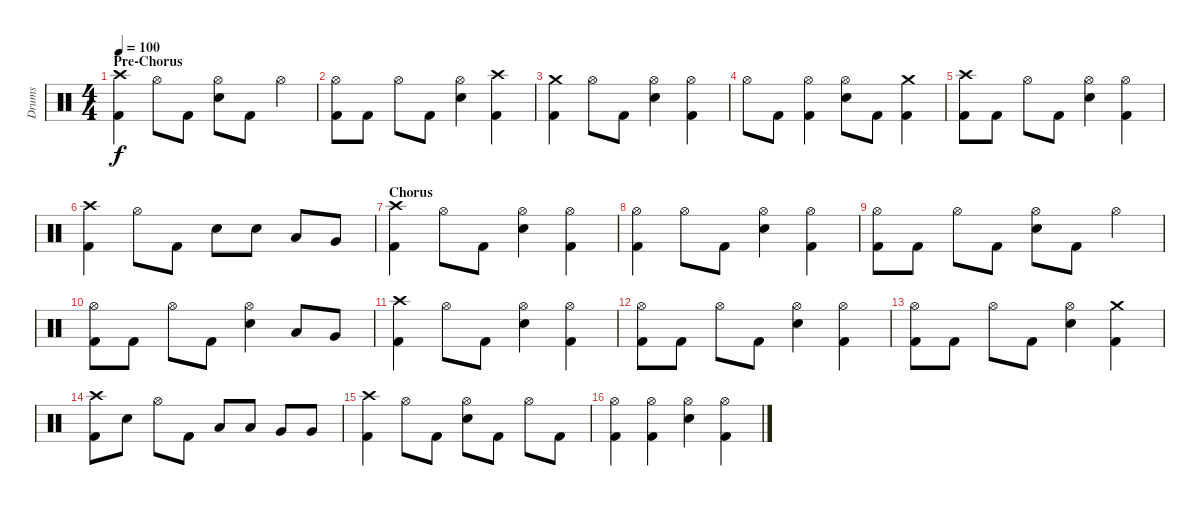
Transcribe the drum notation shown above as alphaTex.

\track ("Drums" "Drums") {instrument percussion}
\staff {score}
\articulation defaults
\ts (4 4)
\section ("" "Pre-Chorus")
\tempo 100
\clef neutral
\ks c
("Crash high (hit)" "Kick (hit) 2").4{dy f} "Hi-Hat (open)".8 "Kick (hit) 2".8 ("Hi-Hat (open)" "Electric Snare (hit)").8 "Kick (hit) 2".8 "Hi-Hat (open)".4 |
("Hi-Hat (open)" "Kick (hit) 2").8 "Kick (hit) 2".8 "Hi-Hat (open)".8 "Kick (hit) 2".8 ("Hi-Hat (open)" "Electric Snare (hit)").4 ("Crash high (hit)" "Kick (hit) 2").4 |
("Crash medium (hit)" "Kick (hit) 2").4 "Hi-Hat (open)".8 "Kick (hit) 2".8 ("Hi-Hat (open)" "Electric Snare (hit)").4 ("Hi-Hat (open)" "Kick (hit) 2").4 |
"Hi-Hat (open)".8 "Kick (hit) 2".8 ("Hi-Hat (open)" "Kick (hit) 2").4 ("Hi-Hat (open)" "Electric Snare (hit)").8 "Kick (hit) 2".8 ("Crash medium (hit)" "Kick (hit) 2").4 |
("Crash high (hit)" "Kick (hit) 2").8 "Kick (hit) 2".8 "Hi-Hat (open)".8 "Kick (hit) 2".8 ("Hi-Hat (open)" "Electric Snare (hit)").4 ("Hi-Hat (open)" "Kick (hit) 2").4 |
("Crash high (hit)" "Kick (hit) 2").4 "Hi-Hat (open)".8 "Kick (hit) 2".8 "Electric Snare (hit)".8 "Electric Snare (hit)".8 "Low Tom (hit)".8 "Very Low Tom (hit)".8 |
\section ("" "Chorus")
("Crash high (hit)" "Kick (hit) 2").4 "Hi-Hat (open)".8 "Kick (hit) 2".8 ("Hi-Hat (open)" "Electric Snare (hit)").4 ("Hi-Hat (open)" "Kick (hit) 2").4 |
("Hi-Hat (open)" "Kick (hit) 2").4 "Hi-Hat (open)".8 "Kick (hit) 2".8 ("Hi-Hat (open)" "Electric Snare (hit)").4 ("Hi-Hat (open)" "Kick (hit) 2").4 |
("Hi-Hat (open)" "Kick (hit) 2").8 "Kick (hit) 2".8 "Hi-Hat (open)".8 "Kick (hit) 2".8 ("Hi-Hat (open)" "Electric Snare (hit)").8 "Kick (hit) 2".8 "Hi-Hat (open)".4 |
("Hi-Hat (open)" "Kick (hit) 2").8 "Kick (hit) 2".8 "Hi-Hat (open)".8 "Kick (hit) 2".8 ("Hi-Hat (open)" "Electric Snare (hit)").4 "Low Tom (hit)".8 "Very Low Tom (hit)".8 |
("Crash high (hit)" "Kick (hit) 2").4 "Hi-Hat (open)".8 "Kick (hit) 2".8 ("Hi-Hat (open)" "Electric Snare (hit)").4 ("Hi-Hat (open)" "Kick (hit) 2").4 |
("Hi-Hat (open)" "Kick (hit) 2").8 "Kick (hit) 2".8 "Hi-Hat (open)".8 "Kick (hit) 2".8 ("Hi-Hat (open)" "Electric Snare (hit)").4 ("Hi-Hat (open)" "Kick (hit) 2").4 |
("Hi-Hat (open)" "Kick (hit) 2").8 "Kick (hit) 2".8 "Hi-Hat (open)".8 "Kick (hit) 2".8 ("Hi-Hat (open)" "Electric Snare (hit)").4 ("Crash medium (hit)" "Kick (hit) 2").4 |
("Crash high (hit)" "Kick (hit) 2").8 "Electric Snare (hit)".8 "Hi-Hat (open)".8 "Kick (hit) 2".8 "Low Tom (hit)".8 "Low Tom (hit)".8 "Very Low Tom (hit)".8 "Very Low Tom (hit)".8 |
("Crash high (hit)" "Kick (hit) 2").4 "Hi-Hat (open)".8 "Kick (hit) 2".8 ("Hi-Hat (open)" "Electric Snare (hit)").8 "Kick (hit) 2".8 "Hi-Hat (open)".8 "Kick (hit) 2".8 |
("Hi-Hat (open)" "Kick (hit) 2").4 ("Hi-Hat (open)" "Kick (hit) 2").4 ("Hi-Hat (open)" "Electric Snare (hit)").4 ("Hi-Hat (open)" "Kick (hit) 2").4
